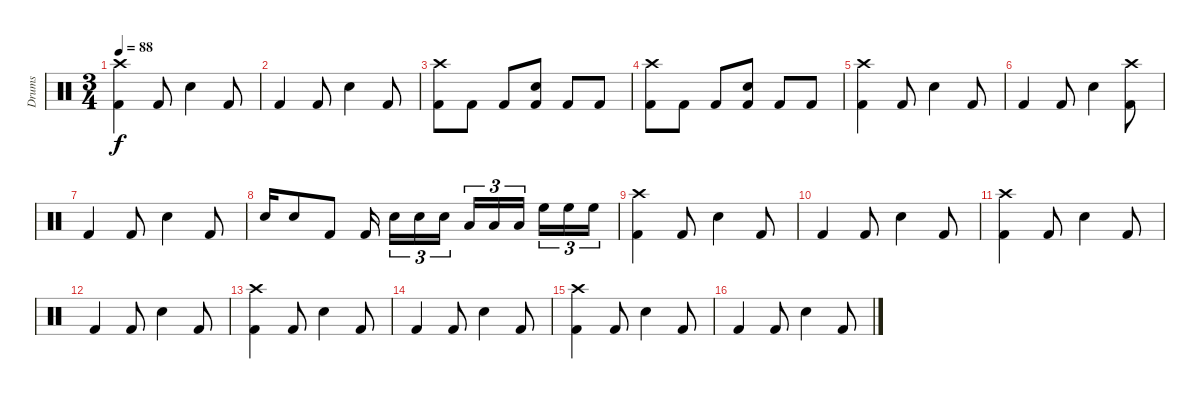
\track ("Drums" "Drums") {instrument percussion}
\staff {score}
\articulation defaults
\ts (3 4)
\tempo 88
\clef neutral
\ks c
("Crash high (hit)" "Kick (hit) 2").4{dy f} "Kick (hit) 2".8 "Snare (hit) 2".4 "Kick (hit) 2".8 |
"Kick (hit) 2".4 "Kick (hit) 2".8 "Snare (hit) 2".4 "Kick (hit) 2".8 |
("Crash high (hit)" "Kick (hit) 2").8 "Kick (hit) 2".8 "Kick (hit) 2".8 ("Snare (hit) 2" "Kick (hit) 2").8 "Kick (hit) 2".8 "Kick (hit) 2".8 |
("Crash high (hit)" "Kick (hit) 2").8 "Kick (hit) 2".8 "Kick (hit) 2".8 ("Snare (hit) 2" "Kick (hit) 2").8 "Kick (hit) 2".8 "Kick (hit) 2".8 |
("Crash high (hit)" "Kick (hit) 2").4 "Kick (hit) 2".8 "Snare (hit) 2".4 "Kick (hit) 2".8 |
"Kick (hit) 2".4 "Kick (hit) 2".8 "Snare (hit) 2".4 ("Crash high (hit)" "Kick (hit) 2").8 |
"Kick (hit) 2".4 "Kick (hit) 2".8 "Snare (hit) 2".4 "Kick (hit) 2".8 |
"Snare (hit) 2".16 "Snare (hit) 2".8 "Kick (hit) 2".8 "Kick (hit) 2".16 "Snare (hit) 2".16{tu (3 2)} "Snare (hit) 2".16{tu (3 2)} "Snare (hit) 2".16{tu (3 2)} "Low Tom (hit)".16{tu (3 2)} "Low Tom (hit)".16{tu (3 2)} "Low Tom (hit)".16{tu (3 2)} "High Floor Tom (hit)".16{tu (3 2)} "High Floor Tom (hit)".16{tu (3 2)} "High Floor Tom (hit)".16{tu (3 2)} |
("Crash high (hit)" "Kick (hit) 2").4 "Kick (hit) 2".8 "Snare (hit) 2".4 "Kick (hit) 2".8 |
"Kick (hit) 2".4 "Kick (hit) 2".8 "Snare (hit) 2".4 "Kick (hit) 2".8 |
("Crash high (hit)" "Kick (hit) 2").4 "Kick (hit) 2".8 "Snare (hit) 2".4 "Kick (hit) 2".8 |
"Kick (hit) 2".4 "Kick (hit) 2".8 "Snare (hit) 2".4 "Kick (hit) 2".8 |
("Crash high (hit)" "Kick (hit) 2").4 "Kick (hit) 2".8 "Snare (hit) 2".4 "Kick (hit) 2".8 |
"Kick (hit) 2".4 "Kick (hit) 2".8 "Snare (hit) 2".4 "Kick (hit) 2".8 |
("Crash high (hit)" "Kick (hit) 2").4 "Kick (hit) 2".8 "Snare (hit) 2".4 "Kick (hit) 2".8 |
"Kick (hit) 2".4 "Kick (hit) 2".8 "Snare (hit) 2".4 "Kick (hit) 2".8
